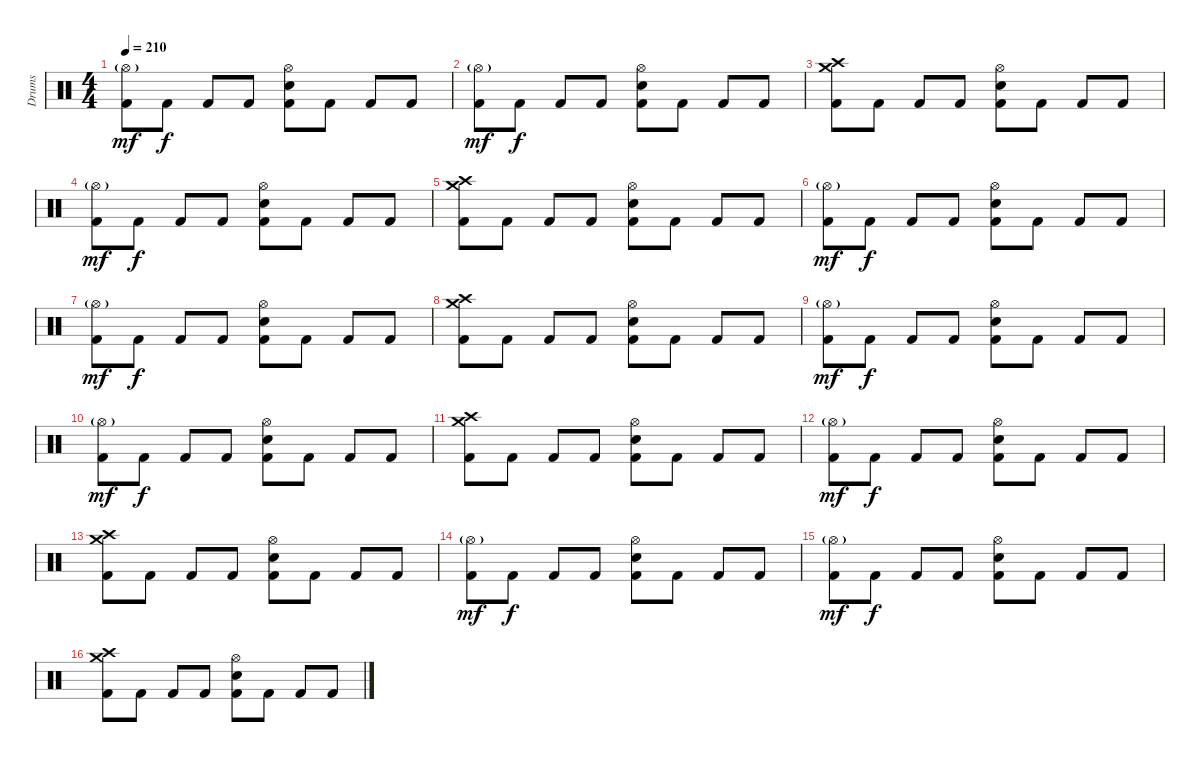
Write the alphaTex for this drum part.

\track ("Drums" "Drums") {instrument percussion}
\staff {score}
\articulation defaults
\ts (4 4)
\tempo 210
\clef neutral
\ks c
("Hi-Hat (open)"{g} "Kick (hit) 2").8{dy mf} "Kick (hit) 2".8{dy f} "Kick (hit) 2".8 "Kick (hit) 2".8 ("Hi-Hat (open)" "Electric Snare (hit)" "Kick (hit) 2").8 "Kick (hit) 2".8 "Kick (hit) 2".8 "Kick (hit) 2".8 |
("Hi-Hat (open)"{g} "Kick (hit) 2").8{dy mf} "Kick (hit) 2".8{dy f} "Kick (hit) 2".8 "Kick (hit) 2".8 ("Hi-Hat (open)" "Electric Snare (hit)" "Kick (hit) 2").8 "Kick (hit) 2".8 "Kick (hit) 2".8 "Kick (hit) 2".8 |
("Crash high (hit)" "Crash medium (hit)" "Kick (hit) 2").8 "Kick (hit) 2".8 "Kick (hit) 2".8 "Kick (hit) 2".8 ("Hi-Hat (open)" "Electric Snare (hit)" "Kick (hit) 2").8 "Kick (hit) 2".8 "Kick (hit) 2".8 "Kick (hit) 2".8 |
("Hi-Hat (open)"{g} "Kick (hit) 2").8{dy mf} "Kick (hit) 2".8{dy f} "Kick (hit) 2".8 "Kick (hit) 2".8 ("Hi-Hat (open)" "Electric Snare (hit)" "Kick (hit) 2").8 "Kick (hit) 2".8 "Kick (hit) 2".8 "Kick (hit) 2".8 |
("Crash high (hit)" "Crash medium (hit)" "Kick (hit) 2").8 "Kick (hit) 2".8 "Kick (hit) 2".8 "Kick (hit) 2".8 ("Hi-Hat (open)" "Electric Snare (hit)" "Kick (hit) 2").8 "Kick (hit) 2".8 "Kick (hit) 2".8 "Kick (hit) 2".8 |
("Hi-Hat (open)"{g} "Kick (hit) 2").8{dy mf} "Kick (hit) 2".8{dy f} "Kick (hit) 2".8 "Kick (hit) 2".8 ("Hi-Hat (open)" "Electric Snare (hit)" "Kick (hit) 2").8 "Kick (hit) 2".8 "Kick (hit) 2".8 "Kick (hit) 2".8 |
("Hi-Hat (open)"{g} "Kick (hit) 2").8{dy mf} "Kick (hit) 2".8{dy f} "Kick (hit) 2".8 "Kick (hit) 2".8 ("Hi-Hat (open)" "Electric Snare (hit)" "Kick (hit) 2").8 "Kick (hit) 2".8 "Kick (hit) 2".8 "Kick (hit) 2".8 |
("Crash high (hit)" "Crash medium (hit)" "Kick (hit) 2").8 "Kick (hit) 2".8 "Kick (hit) 2".8 "Kick (hit) 2".8 ("Hi-Hat (open)" "Electric Snare (hit)" "Kick (hit) 2").8 "Kick (hit) 2".8 "Kick (hit) 2".8 "Kick (hit) 2".8 |
("Hi-Hat (open)"{g} "Kick (hit) 2").8{dy mf} "Kick (hit) 2".8{dy f} "Kick (hit) 2".8 "Kick (hit) 2".8 ("Hi-Hat (open)" "Electric Snare (hit)" "Kick (hit) 2").8 "Kick (hit) 2".8 "Kick (hit) 2".8 "Kick (hit) 2".8 |
("Hi-Hat (open)"{g} "Kick (hit) 2").8{dy mf} "Kick (hit) 2".8{dy f} "Kick (hit) 2".8 "Kick (hit) 2".8 ("Hi-Hat (open)" "Electric Snare (hit)" "Kick (hit) 2").8 "Kick (hit) 2".8 "Kick (hit) 2".8 "Kick (hit) 2".8 |
("Crash high (hit)" "Crash medium (hit)" "Kick (hit) 2").8 "Kick (hit) 2".8 "Kick (hit) 2".8 "Kick (hit) 2".8 ("Hi-Hat (open)" "Electric Snare (hit)" "Kick (hit) 2").8 "Kick (hit) 2".8 "Kick (hit) 2".8 "Kick (hit) 2".8 |
("Hi-Hat (open)"{g} "Kick (hit) 2").8{dy mf} "Kick (hit) 2".8{dy f} "Kick (hit) 2".8 "Kick (hit) 2".8 ("Hi-Hat (open)" "Electric Snare (hit)" "Kick (hit) 2").8 "Kick (hit) 2".8 "Kick (hit) 2".8 "Kick (hit) 2".8 |
("Crash high (hit)" "Crash medium (hit)" "Kick (hit) 2").8 "Kick (hit) 2".8 "Kick (hit) 2".8 "Kick (hit) 2".8 ("Hi-Hat (open)" "Electric Snare (hit)" "Kick (hit) 2").8 "Kick (hit) 2".8 "Kick (hit) 2".8 "Kick (hit) 2".8 |
("Hi-Hat (open)"{g} "Kick (hit) 2").8{dy mf} "Kick (hit) 2".8{dy f} "Kick (hit) 2".8 "Kick (hit) 2".8 ("Hi-Hat (open)" "Electric Snare (hit)" "Kick (hit) 2").8 "Kick (hit) 2".8 "Kick (hit) 2".8 "Kick (hit) 2".8 |
("Hi-Hat (open)"{g} "Kick (hit) 2").8{dy mf} "Kick (hit) 2".8{dy f} "Kick (hit) 2".8 "Kick (hit) 2".8 ("Hi-Hat (open)" "Electric Snare (hit)" "Kick (hit) 2").8 "Kick (hit) 2".8 "Kick (hit) 2".8 "Kick (hit) 2".8 |
("Crash high (hit)" "Crash medium (hit)" "Kick (hit) 2").8 "Kick (hit) 2".8 "Kick (hit) 2".8 "Kick (hit) 2".8 ("Hi-Hat (open)" "Electric Snare (hit)" "Kick (hit) 2").8 "Kick (hit) 2".8 "Kick (hit) 2".8 "Kick (hit) 2".8
